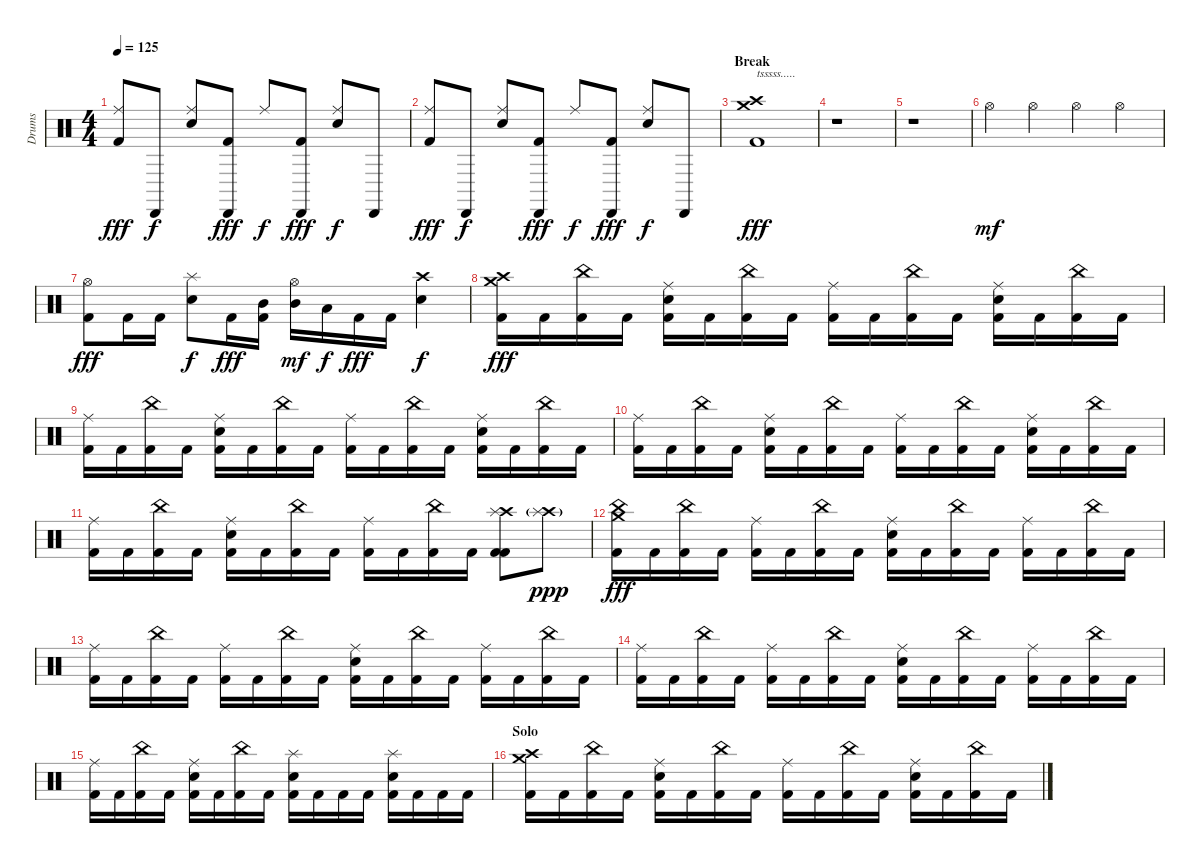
\track ("Drums" "Drums") {instrument percussion}
\staff {score}
\articulation defaults
\ts (4 4)
\tempo 125
\clef neutral
\ks c
("Ride (middle)" "Kick (hit) 2").8{dy fff} "Cabasa (hit)".8{dy f} ("Ride (middle)" "Electric Snare (hit)").8 ("Cabasa (hit)" "Kick (hit) 2").8{dy fff} "Ride (middle)".8{dy f} ("Cabasa (hit)" "Kick (hit) 2").8{dy fff} ("Ride (middle)" "Electric Snare (hit)").8{dy f} "Cabasa (hit)".8 |
("Ride (middle)" "Kick (hit) 2").8{dy fff} "Cabasa (hit)".8{dy f} ("Ride (middle)" "Electric Snare (hit)").8 ("Cabasa (hit)" "Kick (hit) 2").8{dy fff} "Ride (middle)".8{dy f} ("Cabasa (hit)" "Kick (hit) 2").8{dy fff} ("Ride (middle)" "Electric Snare (hit)").8{dy f} "Cabasa (hit)".8 |
\section ("" "Break")
("Crash medium (hit)" "Crash high (hit)" "Kick (hit) 2").1{txt "tsssss....." dy fff} |
r.1 |
r.1 |
"Hi-Hat (open)".4{dy mf} "Hi-Hat (open)".4 "Hi-Hat (open)".4 "Hi-Hat (open)".4 |
("Hi-Hat (open)" "Kick (hit) 2").8{dy fff} "Kick (hit) 2".16 "Kick (hit) 2".16 ("Splash (hit)" "Electric Snare (hit)").8{dy f} "Kick (hit) 2".16{dy fff} ("Mid Tom (hit)" "Kick (hit) 2").16 ("Hi-Hat (open)" "Mid Tom (hit)").16{dy mf} "Low Tom (hit)".16{dy f} "Kick (hit) 2".16{dy fff} "Kick (hit) 2".16 ("Crash high (hit)" "Electric Snare (hit)").4{dy f} |
("Crash medium (hit)" "Crash high (hit)" "Kick (hit) 2").16{dy fff} "Kick (hit) 2".16 ("China (hit)" "Kick (hit) 2").16 "Kick (hit) 2".16 ("Ride (middle)" "Electric Snare (hit)" "Kick (hit) 2").16 "Kick (hit) 2".16 ("China (hit)" "Kick (hit) 2").16 "Kick (hit) 2".16 ("Ride (middle)" "Kick (hit) 2").16 "Kick (hit) 2".16 ("China (hit)" "Kick (hit) 2").16 "Kick (hit) 2".16 ("Ride (middle)" "Electric Snare (hit)" "Kick (hit) 2").16 "Kick (hit) 2".16 ("China (hit)" "Kick (hit) 2").16 "Kick (hit) 2".16 |
("Ride (middle)" "Kick (hit) 2").16 "Kick (hit) 2".16 ("China (hit)" "Kick (hit) 2").16 "Kick (hit) 2".16 ("Ride (middle)" "Electric Snare (hit)" "Kick (hit) 2").16 "Kick (hit) 2".16 ("China (hit)" "Kick (hit) 2").16 "Kick (hit) 2".16 ("Ride (middle)" "Kick (hit) 2").16 "Kick (hit) 2".16 ("China (hit)" "Kick (hit) 2").16 "Kick (hit) 2".16 ("Ride (middle)" "Electric Snare (hit)" "Kick (hit) 2").16 "Kick (hit) 2".16 ("China (hit)" "Kick (hit) 2").16 "Kick (hit) 2".16 |
("Ride (middle)" "Kick (hit) 2").16 "Kick (hit) 2".16 ("China (hit)" "Kick (hit) 2").16 "Kick (hit) 2".16 ("Ride (middle)" "Electric Snare (hit)" "Kick (hit) 2").16 "Kick (hit) 2".16 ("China (hit)" "Kick (hit) 2").16 "Kick (hit) 2".16 ("Ride (middle)" "Kick (hit) 2").16 "Kick (hit) 2".16 ("China (hit)" "Kick (hit) 2").16 "Kick (hit) 2".16 ("Ride (middle)" "Electric Snare (hit)" "Kick (hit) 2").16 "Kick (hit) 2".16 ("China (hit)" "Kick (hit) 2").16 "Kick (hit) 2".16 |
("Ride (middle)" "Kick (hit) 2").16 "Kick (hit) 2".16 ("China (hit)" "Kick (hit) 2").16 "Kick (hit) 2".16 ("Ride (middle)" "Electric Snare (hit)" "Kick (hit) 2").16 "Kick (hit) 2".16 ("China (hit)" "Kick (hit) 2").16 "Kick (hit) 2".16 ("Ride (middle)" "Kick (hit) 2").16 "Kick (hit) 2".16 ("China (hit)" "Kick (hit) 2").16 "Kick (hit) 2".16 ("Crash high (hit)" "Splash (hit)" "Kick (hit) 2" "Kick (hit) 2").8 ("Crash high (hit)"{g} "Splash (hit)"{g}).8{dy ppp} |
("Crash medium (hit)" "China (hit)" "Kick (hit) 2").16{dy fff} "Kick (hit) 2".16 ("China (hit)" "Kick (hit) 2").16 "Kick (hit) 2".16 ("Ride (middle)" "Kick (hit) 2").16 "Kick (hit) 2".16 ("China (hit)" "Kick (hit) 2").16 "Kick (hit) 2".16 ("Ride (middle)" "Electric Snare (hit)" "Kick (hit) 2").16 "Kick (hit) 2".16 ("China (hit)" "Kick (hit) 2").16 "Kick (hit) 2".16 ("Ride (middle)" "Kick (hit) 2").16 "Kick (hit) 2".16 ("China (hit)" "Kick (hit) 2").16 "Kick (hit) 2".16 |
("Ride (middle)" "Kick (hit) 2").16 "Kick (hit) 2".16 ("China (hit)" "Kick (hit) 2").16 "Kick (hit) 2".16 ("Ride (middle)" "Kick (hit) 2").16 "Kick (hit) 2".16 ("China (hit)" "Kick (hit) 2").16 "Kick (hit) 2".16 ("Ride (middle)" "Electric Snare (hit)" "Kick (hit) 2").16 "Kick (hit) 2".16 ("China (hit)" "Kick (hit) 2").16 "Kick (hit) 2".16 ("Ride (middle)" "Kick (hit) 2").16 "Kick (hit) 2".16 ("China (hit)" "Kick (hit) 2").16 "Kick (hit) 2".16 |
("Ride (middle)" "Kick (hit) 2").16 "Kick (hit) 2".16 ("China (hit)" "Kick (hit) 2").16 "Kick (hit) 2".16 ("Ride (middle)" "Kick (hit) 2").16 "Kick (hit) 2".16 ("China (hit)" "Kick (hit) 2").16 "Kick (hit) 2".16 ("Ride (middle)" "Electric Snare (hit)" "Kick (hit) 2").16 "Kick (hit) 2".16 ("China (hit)" "Kick (hit) 2").16 "Kick (hit) 2".16 ("Ride (middle)" "Kick (hit) 2").16 "Kick (hit) 2".16 ("China (hit)" "Kick (hit) 2").16 "Kick (hit) 2".16 |
("Ride (middle)" "Kick (hit) 2").16 "Kick (hit) 2".16 ("China (hit)" "Kick (hit) 2").16 "Kick (hit) 2".16 ("Ride (middle)" "Electric Snare (hit)" "Kick (hit) 2").16 "Kick (hit) 2".16 ("China (hit)" "Kick (hit) 2").16 "Kick (hit) 2".16 ("Splash (hit)" "Electric Snare (hit)" "Kick (hit) 2").16 "Kick (hit) 2".16 "Kick (hit) 2".16 "Kick (hit) 2".16 ("Splash (hit)" "Electric Snare (hit)" "Kick (hit) 2").16 "Kick (hit) 2".16 "Kick (hit) 2".16 "Kick (hit) 2".16 |
\section ("" "Solo")
("Crash medium (hit)" "Crash high (hit)" "Kick (hit) 2").16 "Kick (hit) 2".16 ("China (hit)" "Kick (hit) 2").16 "Kick (hit) 2".16 ("Ride (middle)" "Electric Snare (hit)" "Kick (hit) 2").16 "Kick (hit) 2".16 ("China (hit)" "Kick (hit) 2").16 "Kick (hit) 2".16 ("Ride (middle)" "Kick (hit) 2").16 "Kick (hit) 2".16 ("China (hit)" "Kick (hit) 2").16 "Kick (hit) 2".16 ("Ride (middle)" "Electric Snare (hit)" "Kick (hit) 2").16 "Kick (hit) 2".16 ("China (hit)" "Kick (hit) 2").16 "Kick (hit) 2".16
